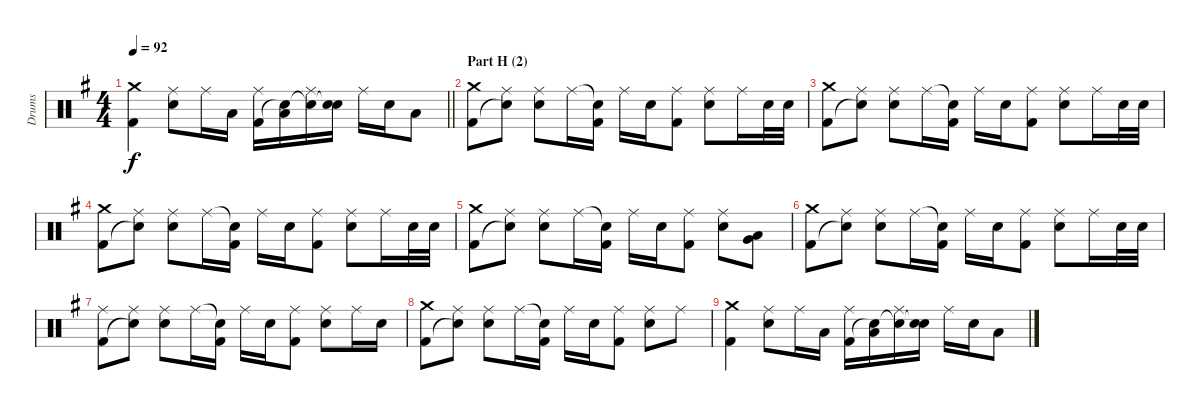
\track ("Drums" "Drums") {instrument percussion}
\staff {score}
\articulation defaults
\ts (4 4)
\tempo 92
\clef neutral
\barLineRight lightlight
\ks g
("Crash medium (hit)" "Kick (hit) 2").4{dy f} ("Ride (middle)" "Electric Snare (hit)").8 "Ride (middle)".16 "Low Tom (hit)".16 ("Ride (middle)" "Kick (hit) 2").16 ("Low Tom (hit)" "Snare (hit)"{t}).16 ("Ride (middle)" "Snare (hit)"{t}).16 ("Electric Snare (hit)" "Snare (hit)"{t}).16 "Ride (middle)".16 "Electric Snare (hit)".16 "Low Tom (hit)".8 |
\section ("" "Part H (2)")
("Crash medium (hit)" "Kick (hit) 2").8 ("Ride (middle)" "Snare (hit)"{t}).8 ("Ride (middle)" "Electric Snare (hit)").8 "Ride (middle)".16 ("Snare (hit)"{t} "Kick (hit) 2").16 "Ride (middle)".16 "Electric Snare (hit)".16 ("Ride (middle)" "Kick (hit) 2").8 ("Ride (middle)" "Electric Snare (hit)").8 "Ride (middle)".16 "Electric Snare (hit)".32 "Electric Snare (hit)".32 |
("Crash medium (hit)" "Kick (hit) 2").8 ("Ride (middle)" "Snare (hit)"{t}).8 ("Ride (middle)" "Electric Snare (hit)").8 "Ride (middle)".16 ("Snare (hit)"{t} "Kick (hit) 2").16 "Ride (middle)".16 "Electric Snare (hit)".16 ("Ride (middle)" "Kick (hit) 2").8 ("Ride (middle)" "Electric Snare (hit)").8 "Ride (middle)".16 "Electric Snare (hit)".32 "Electric Snare (hit)".32 |
("Crash medium (hit)" "Kick (hit) 2").8 ("Ride (middle)" "Snare (hit)"{t}).8 ("Ride (middle)" "Electric Snare (hit)").8 "Ride (middle)".16 ("Snare (hit)"{t} "Kick (hit) 2").16 "Ride (middle)".16 "Electric Snare (hit)".16 ("Ride (middle)" "Kick (hit) 2").8 ("Ride (middle)" "Electric Snare (hit)").8 "Ride (middle)".16 "Electric Snare (hit)".32 "Electric Snare (hit)".32 |
("Crash medium (hit)" "Kick (hit) 2").8 ("Ride (middle)" "Snare (hit)"{t}).8 ("Ride (middle)" "Electric Snare (hit)").8 "Ride (middle)".16 ("Snare (hit)"{t} "Kick (hit) 2").16 "Ride (middle)".16 "Electric Snare (hit)".16 ("Ride (middle)" "Kick (hit) 2").8 ("Ride (middle)" "Electric Snare (hit)").8 ("Low Tom (hit)" "Very Low Tom (hit)").8 |
("Crash medium (hit)" "Kick (hit) 2").8 ("Ride (middle)" "Snare (hit)"{t}).8 ("Ride (middle)" "Electric Snare (hit)").8 "Ride (middle)".16 ("Snare (hit)"{t} "Kick (hit) 2").16 "Ride (middle)".16 "Electric Snare (hit)".16 ("Ride (middle)" "Kick (hit) 2").8 ("Ride (middle)" "Electric Snare (hit)").8 "Ride (middle)".16 "Electric Snare (hit)".32 "Electric Snare (hit)".32 |
("Ride (middle)" "Kick (hit) 2").8 ("Ride (middle)" "Snare (hit)"{t}).8 ("Ride (middle)" "Electric Snare (hit)").8 "Ride (middle)".16 ("Snare (hit)"{t} "Kick (hit) 2").16 "Ride (middle)".16 "Electric Snare (hit)".16 ("Ride (middle)" "Kick (hit) 2").8 ("Ride (middle)" "Electric Snare (hit)").8 "Ride (middle)".16 "Electric Snare (hit)".16 |
("Crash medium (hit)" "Kick (hit) 2").8 ("Ride (middle)" "Snare (hit)"{t}).8 ("Ride (middle)" "Electric Snare (hit)").8 "Ride (middle)".16 ("Snare (hit)"{t} "Kick (hit) 2").16 "Ride (middle)".16 "Electric Snare (hit)".16 ("Ride (middle)" "Kick (hit) 2").8 ("Ride (middle)" "Electric Snare (hit)").8 "Ride (middle)".8 |
("Crash medium (hit)" "Kick (hit) 2").4 ("Ride (middle)" "Electric Snare (hit)").8 "Ride (middle)".16 "Low Tom (hit)".16 ("Ride (middle)" "Kick (hit) 2").16 ("Low Tom (hit)" "Snare (hit)"{t}).16 ("Ride (middle)" "Snare (hit)"{t}).16 ("Electric Snare (hit)" "Snare (hit)"{t}).16 "Ride (middle)".16 "Electric Snare (hit)".16 "Low Tom (hit)".8
